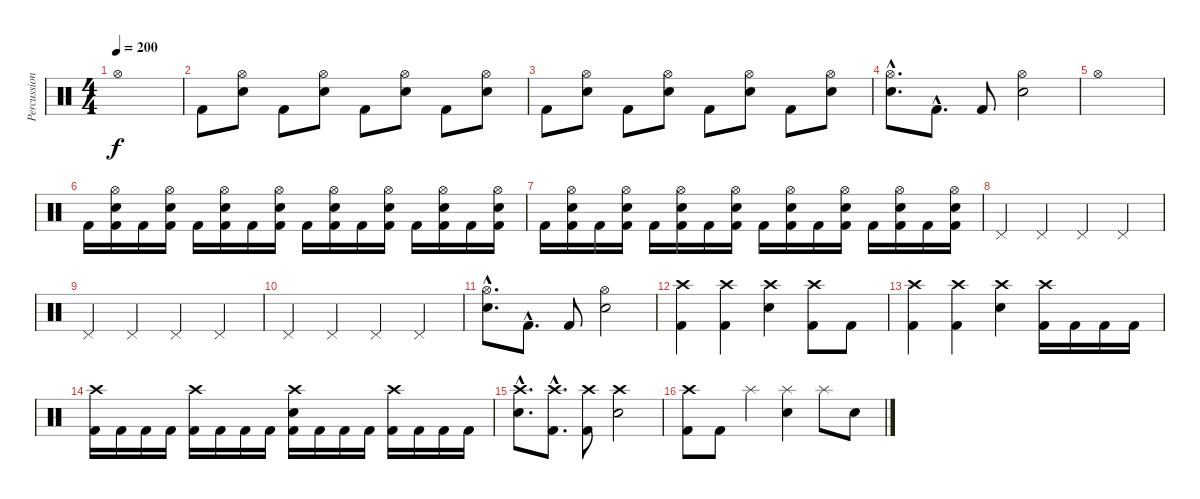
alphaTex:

\track ("Percussion" "Percussion") {instrument percussion}
\staff {score}
\articulation defaults
\ts (4 4)
\tempo 200
\clef neutral
\ks c "Hi-Hat (open)".1{dy f}
|
"Kick (hit) 2".8 ("Hi-Hat (open)" "Electric Snare (hit)").8 "Kick (hit) 2".8 ("Hi-Hat (open)" "Electric Snare (hit)").8 "Kick (hit) 2".8 ("Hi-Hat (open)" "Electric Snare (hit)").8 "Kick (hit) 2".8 ("Hi-Hat (open)" "Electric Snare (hit)").8 |
"Kick (hit) 2".8 ("Hi-Hat (open)" "Electric Snare (hit)").8 "Kick (hit) 2".8 ("Hi-Hat (open)" "Electric Snare (hit)").8 "Kick (hit) 2".8 ("Hi-Hat (open)" "Electric Snare (hit)").8 "Kick (hit) 2".8 ("Hi-Hat (open)" "Electric Snare (hit)").8 |
("Hi-Hat (open)"{hac} "Electric Snare (hit)"{hac}).8{d} "Kick (hit) 2"{hac}.8{d} "Kick (hit) 2".8 ("Hi-Hat (open)" "Electric Snare (hit)").2 |
"Hi-Hat (open)".1 |
"Kick (hit) 2".16 ("Hi-Hat (open)" "Electric Snare (hit)" "Kick (hit) 2").16 "Kick (hit) 2".16 ("Hi-Hat (open)" "Electric Snare (hit)" "Kick (hit) 2").16 "Kick (hit) 2".16 ("Hi-Hat (open)" "Electric Snare (hit)" "Kick (hit) 2").16 "Kick (hit) 2".16 ("Hi-Hat (open)" "Electric Snare (hit)" "Kick (hit) 2").16 "Kick (hit) 2".16 ("Hi-Hat (open)" "Electric Snare (hit)" "Kick (hit) 2").16 "Kick (hit) 2".16 ("Hi-Hat (open)" "Electric Snare (hit)" "Kick (hit) 2").16 "Kick (hit) 2".16 ("Hi-Hat (open)" "Electric Snare (hit)" "Kick (hit) 2").16 "Kick (hit) 2".16 ("Hi-Hat (open)" "Electric Snare (hit)" "Kick (hit) 2").16 |
"Kick (hit) 2".16 ("Hi-Hat (open)" "Electric Snare (hit)" "Kick (hit) 2").16 "Kick (hit) 2".16 ("Hi-Hat (open)" "Electric Snare (hit)" "Kick (hit) 2").16 "Kick (hit) 2".16 ("Hi-Hat (open)" "Electric Snare (hit)" "Kick (hit) 2").16 "Kick (hit) 2".16 ("Hi-Hat (open)" "Electric Snare (hit)" "Kick (hit) 2").16 "Kick (hit) 2".16 ("Hi-Hat (open)" "Electric Snare (hit)" "Kick (hit) 2").16 "Kick (hit) 2".16 ("Hi-Hat (open)" "Electric Snare (hit)" "Kick (hit) 2").16 "Kick (hit) 2".16 ("Hi-Hat (open)" "Electric Snare (hit)" "Kick (hit) 2").16 "Kick (hit) 2".16 ("Hi-Hat (open)" "Electric Snare (hit)" "Kick (hit) 2").16 |
"Pedal Hi-Hat (hit)".4 "Pedal Hi-Hat (hit)".4 "Pedal Hi-Hat (hit)".4 "Pedal Hi-Hat (hit)".4 |
"Pedal Hi-Hat (hit)".4 "Pedal Hi-Hat (hit)".4 "Pedal Hi-Hat (hit)".4 "Pedal Hi-Hat (hit)".4 |
"Pedal Hi-Hat (hit)".4 "Pedal Hi-Hat (hit)".4 "Pedal Hi-Hat (hit)".4 "Pedal Hi-Hat (hit)".4 |
("Hi-Hat (open)"{hac} "Electric Snare (hit)"{hac}).8{d} "Kick (hit) 2"{hac}.8{d} "Kick (hit) 2".8 ("Hi-Hat (open)" "Electric Snare (hit)").2 |
("Crash high (hit)" "Kick (hit) 2").4 ("Crash high (hit)" "Kick (hit) 2").4 ("Crash high (hit)" "Electric Snare (hit)").4 ("Crash high (hit)" "Kick (hit) 2").8 "Kick (hit) 2".8 |
("Crash high (hit)" "Kick (hit) 2").4 ("Crash high (hit)" "Kick (hit) 2").4 ("Crash high (hit)" "Electric Snare (hit)").4 ("Crash high (hit)" "Kick (hit) 2").16 "Kick (hit) 2".16 "Kick (hit) 2".16 "Kick (hit) 2".16 |
("Crash high (hit)" "Kick (hit) 2").16 "Kick (hit) 2".16 "Kick (hit) 2".16 "Kick (hit) 2".16 ("Crash high (hit)" "Kick (hit) 2").16 "Kick (hit) 2".16 "Kick (hit) 2".16 "Kick (hit) 2".16 ("Crash high (hit)" "Electric Snare (hit)" "Kick (hit) 2").16 "Kick (hit) 2".16 "Kick (hit) 2".16 "Kick (hit) 2".16 ("Crash high (hit)" "Kick (hit) 2").16 "Kick (hit) 2".16 "Kick (hit) 2".16 "Kick (hit) 2".16 |
("Crash high (hit)"{hac} "Electric Snare (hit)"{hac}).8{d} ("Crash high (hit)"{hac} "Kick (hit) 2"{hac}).8{d} ("Crash high (hit)" "Kick (hit) 2").8 ("Crash high (hit)" "Electric Snare (hit)").2 |
("Crash high (hit)" "Kick (hit) 2").8 "Kick (hit) 2".8 "Splash (hit)".4 ("Splash (hit)" "Electric Snare (hit)").4 "Splash (hit)".8 "Electric Snare (hit)".8
